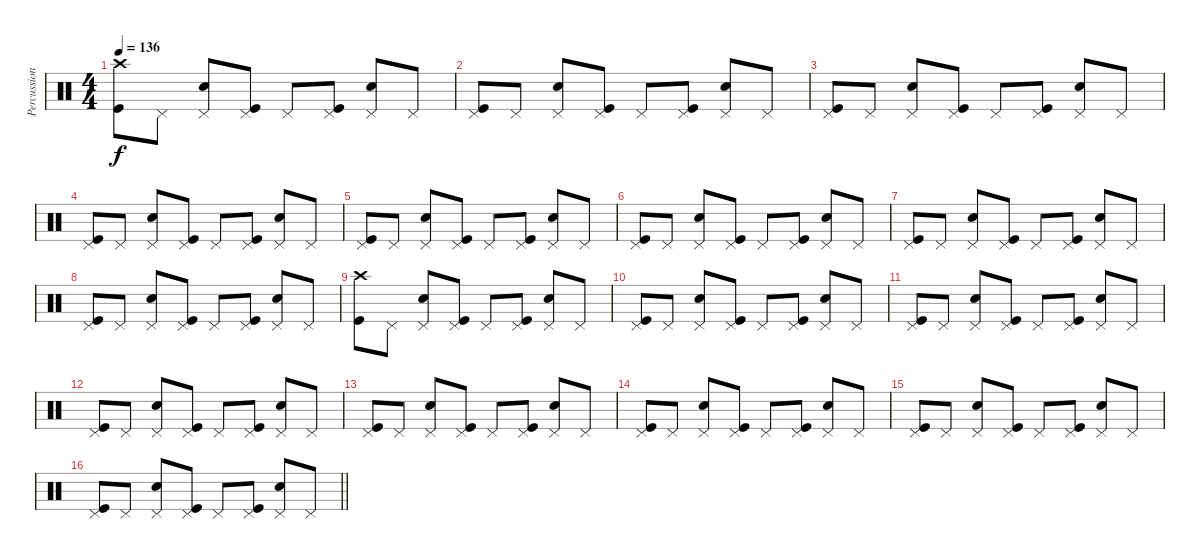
\track ("Percussion" "Percussion") {instrument percussion}
\staff {score}
\articulation defaults
\ts (4 4)
\tempo 136
\clef neutral
\ks c
("Crash high (hit)" "Kick (hit)").8{dy f} "Pedal Hi-Hat (hit)".8 ("Pedal Hi-Hat (hit)" "Snare (hit) 2").8 ("Pedal Hi-Hat (hit)" "Kick (hit)").8 "Pedal Hi-Hat (hit)".8 ("Pedal Hi-Hat (hit)" "Kick (hit)").8 ("Pedal Hi-Hat (hit)" "Snare (hit) 2").8 "Pedal Hi-Hat (hit)".8 |
("Pedal Hi-Hat (hit)" "Kick (hit)").8 "Pedal Hi-Hat (hit)".8 ("Pedal Hi-Hat (hit)" "Snare (hit) 2").8 ("Pedal Hi-Hat (hit)" "Kick (hit)").8 "Pedal Hi-Hat (hit)".8 ("Pedal Hi-Hat (hit)" "Kick (hit)").8 ("Pedal Hi-Hat (hit)" "Snare (hit) 2").8 "Pedal Hi-Hat (hit)".8 |
("Pedal Hi-Hat (hit)" "Kick (hit)").8 "Pedal Hi-Hat (hit)".8 ("Pedal Hi-Hat (hit)" "Snare (hit) 2").8 ("Pedal Hi-Hat (hit)" "Kick (hit)").8 "Pedal Hi-Hat (hit)".8 ("Pedal Hi-Hat (hit)" "Kick (hit)").8 ("Pedal Hi-Hat (hit)" "Snare (hit) 2").8 "Pedal Hi-Hat (hit)".8 |
("Pedal Hi-Hat (hit)" "Kick (hit)").8 "Pedal Hi-Hat (hit)".8 ("Pedal Hi-Hat (hit)" "Snare (hit) 2").8 ("Pedal Hi-Hat (hit)" "Kick (hit)").8 "Pedal Hi-Hat (hit)".8 ("Pedal Hi-Hat (hit)" "Kick (hit)").8 ("Pedal Hi-Hat (hit)" "Snare (hit) 2").8 "Pedal Hi-Hat (hit)".8 |
("Pedal Hi-Hat (hit)" "Kick (hit)").8 "Pedal Hi-Hat (hit)".8 ("Pedal Hi-Hat (hit)" "Snare (hit) 2").8 ("Pedal Hi-Hat (hit)" "Kick (hit)").8 "Pedal Hi-Hat (hit)".8 ("Pedal Hi-Hat (hit)" "Kick (hit)").8 ("Pedal Hi-Hat (hit)" "Snare (hit) 2").8 "Pedal Hi-Hat (hit)".8 |
("Pedal Hi-Hat (hit)" "Kick (hit)").8 "Pedal Hi-Hat (hit)".8 ("Pedal Hi-Hat (hit)" "Snare (hit) 2").8 ("Pedal Hi-Hat (hit)" "Kick (hit)").8 "Pedal Hi-Hat (hit)".8 ("Pedal Hi-Hat (hit)" "Kick (hit)").8 ("Pedal Hi-Hat (hit)" "Snare (hit) 2").8 "Pedal Hi-Hat (hit)".8 |
("Pedal Hi-Hat (hit)" "Kick (hit)").8 "Pedal Hi-Hat (hit)".8 ("Pedal Hi-Hat (hit)" "Snare (hit) 2").8 ("Pedal Hi-Hat (hit)" "Kick (hit)").8 "Pedal Hi-Hat (hit)".8 ("Pedal Hi-Hat (hit)" "Kick (hit)").8 ("Pedal Hi-Hat (hit)" "Snare (hit) 2").8 "Pedal Hi-Hat (hit)".8 |
("Pedal Hi-Hat (hit)" "Kick (hit)").8 "Pedal Hi-Hat (hit)".8 ("Pedal Hi-Hat (hit)" "Snare (hit) 2").8 ("Pedal Hi-Hat (hit)" "Kick (hit)").8 "Pedal Hi-Hat (hit)".8 ("Pedal Hi-Hat (hit)" "Kick (hit)").8 ("Pedal Hi-Hat (hit)" "Snare (hit) 2").8 "Pedal Hi-Hat (hit)".8 |
("Crash high (hit)" "Kick (hit)").8 "Pedal Hi-Hat (hit)".8 ("Pedal Hi-Hat (hit)" "Snare (hit) 2").8 ("Pedal Hi-Hat (hit)" "Kick (hit)").8 "Pedal Hi-Hat (hit)".8 ("Pedal Hi-Hat (hit)" "Kick (hit)").8 ("Pedal Hi-Hat (hit)" "Snare (hit) 2").8 "Pedal Hi-Hat (hit)".8 |
("Pedal Hi-Hat (hit)" "Kick (hit)").8 "Pedal Hi-Hat (hit)".8 ("Pedal Hi-Hat (hit)" "Snare (hit) 2").8 ("Pedal Hi-Hat (hit)" "Kick (hit)").8 "Pedal Hi-Hat (hit)".8 ("Pedal Hi-Hat (hit)" "Kick (hit)").8 ("Pedal Hi-Hat (hit)" "Snare (hit) 2").8 "Pedal Hi-Hat (hit)".8 |
("Pedal Hi-Hat (hit)" "Kick (hit)").8 "Pedal Hi-Hat (hit)".8 ("Pedal Hi-Hat (hit)" "Snare (hit) 2").8 ("Pedal Hi-Hat (hit)" "Kick (hit)").8 "Pedal Hi-Hat (hit)".8 ("Pedal Hi-Hat (hit)" "Kick (hit)").8 ("Pedal Hi-Hat (hit)" "Snare (hit) 2").8 "Pedal Hi-Hat (hit)".8 |
("Pedal Hi-Hat (hit)" "Kick (hit)").8 "Pedal Hi-Hat (hit)".8 ("Pedal Hi-Hat (hit)" "Snare (hit) 2").8 ("Pedal Hi-Hat (hit)" "Kick (hit)").8 "Pedal Hi-Hat (hit)".8 ("Pedal Hi-Hat (hit)" "Kick (hit)").8 ("Pedal Hi-Hat (hit)" "Snare (hit) 2").8 "Pedal Hi-Hat (hit)".8 |
("Pedal Hi-Hat (hit)" "Kick (hit)").8 "Pedal Hi-Hat (hit)".8 ("Pedal Hi-Hat (hit)" "Snare (hit) 2").8 ("Pedal Hi-Hat (hit)" "Kick (hit)").8 "Pedal Hi-Hat (hit)".8 ("Pedal Hi-Hat (hit)" "Kick (hit)").8 ("Pedal Hi-Hat (hit)" "Snare (hit) 2").8 "Pedal Hi-Hat (hit)".8 |
("Pedal Hi-Hat (hit)" "Kick (hit)").8 "Pedal Hi-Hat (hit)".8 ("Pedal Hi-Hat (hit)" "Snare (hit) 2").8 ("Pedal Hi-Hat (hit)" "Kick (hit)").8 "Pedal Hi-Hat (hit)".8 ("Pedal Hi-Hat (hit)" "Kick (hit)").8 ("Pedal Hi-Hat (hit)" "Snare (hit) 2").8 "Pedal Hi-Hat (hit)".8 |
("Pedal Hi-Hat (hit)" "Kick (hit)").8 "Pedal Hi-Hat (hit)".8 ("Pedal Hi-Hat (hit)" "Snare (hit) 2").8 ("Pedal Hi-Hat (hit)" "Kick (hit)").8 "Pedal Hi-Hat (hit)".8 ("Pedal Hi-Hat (hit)" "Kick (hit)").8 ("Pedal Hi-Hat (hit)" "Snare (hit) 2").8 "Pedal Hi-Hat (hit)".8 |
\barLineRight lightlight
("Pedal Hi-Hat (hit)" "Kick (hit)").8 "Pedal Hi-Hat (hit)".8 ("Pedal Hi-Hat (hit)" "Snare (hit) 2").8 ("Pedal Hi-Hat (hit)" "Kick (hit)").8 "Pedal Hi-Hat (hit)".8 ("Pedal Hi-Hat (hit)" "Kick (hit)").8 ("Pedal Hi-Hat (hit)" "Snare (hit) 2").8 "Pedal Hi-Hat (hit)".8
